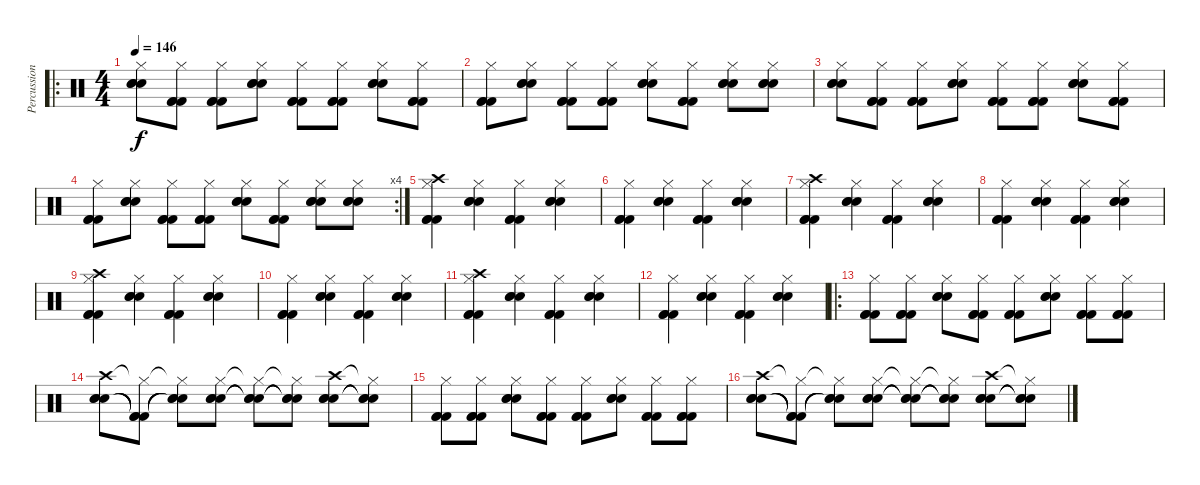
\track ("Percussion" "Percussion") {instrument percussion}
\staff {score}
\articulation defaults
\ro
\ts (4 4)
\tempo 146
\clef neutral
\ks c
("Hi-Hat (closed)" "Snare (hit) 2" "Snare (hit) 2" "Snare (hit) 2").8{dy f} ("Hi-Hat (closed)" "Kick (hit) 2" "Kick (hit) 2" "Kick (hit) 2").8 ("Hi-Hat (closed)" "Kick (hit) 2" "Kick (hit) 2" "Kick (hit) 2").8 ("Hi-Hat (closed)" "Snare (hit) 2" "Snare (hit) 2" "Snare (hit) 2").8 ("Hi-Hat (closed)" "Kick (hit) 2" "Kick (hit) 2" "Kick (hit) 2").8 ("Hi-Hat (closed)" "Kick (hit) 2" "Kick (hit) 2" "Kick (hit) 2").8 ("Hi-Hat (closed)" "Snare (hit) 2" "Snare (hit) 2" "Snare (hit) 2").8 ("Hi-Hat (closed)" "Kick (hit) 2" "Kick (hit) 2" "Kick (hit) 2").8 |
("Hi-Hat (closed)" "Kick (hit) 2" "Kick (hit) 2" "Kick (hit) 2").8 ("Hi-Hat (closed)" "Snare (hit) 2" "Snare (hit) 2" "Snare (hit) 2").8 ("Hi-Hat (closed)" "Kick (hit) 2" "Kick (hit) 2" "Kick (hit) 2").8 ("Hi-Hat (closed)" "Kick (hit) 2" "Kick (hit) 2" "Kick (hit) 2").8 ("Hi-Hat (closed)" "Snare (hit) 2" "Snare (hit) 2" "Snare (hit) 2").8 ("Hi-Hat (closed)" "Kick (hit) 2" "Kick (hit) 2" "Kick (hit) 2").8 ("Hi-Hat (closed)" "Snare (hit) 2" "Snare (hit) 2" "Snare (hit) 2").8 ("Hi-Hat (closed)" "Snare (hit) 2" "Snare (hit) 2" "Snare (hit) 2").8 |
("Hi-Hat (closed)" "Snare (hit) 2" "Snare (hit) 2" "Snare (hit) 2").8 ("Hi-Hat (closed)" "Kick (hit) 2" "Kick (hit) 2" "Kick (hit) 2").8 ("Hi-Hat (closed)" "Kick (hit) 2" "Kick (hit) 2" "Kick (hit) 2").8 ("Hi-Hat (closed)" "Snare (hit) 2" "Snare (hit) 2" "Snare (hit) 2").8 ("Hi-Hat (closed)" "Kick (hit) 2" "Kick (hit) 2" "Kick (hit) 2").8 ("Hi-Hat (closed)" "Kick (hit) 2" "Kick (hit) 2" "Kick (hit) 2").8 ("Hi-Hat (closed)" "Snare (hit) 2" "Snare (hit) 2" "Snare (hit) 2").8 ("Hi-Hat (closed)" "Kick (hit) 2" "Kick (hit) 2" "Kick (hit) 2").8 |
\rc 4
("Hi-Hat (closed)" "Kick (hit) 2" "Kick (hit) 2" "Kick (hit) 2").8 ("Hi-Hat (closed)" "Snare (hit) 2" "Snare (hit) 2" "Snare (hit) 2").8 ("Hi-Hat (closed)" "Kick (hit) 2" "Kick (hit) 2" "Kick (hit) 2").8 ("Hi-Hat (closed)" "Kick (hit) 2" "Kick (hit) 2" "Kick (hit) 2").8 ("Hi-Hat (closed)" "Snare (hit) 2" "Snare (hit) 2" "Snare (hit) 2").8 ("Hi-Hat (closed)" "Kick (hit) 2" "Kick (hit) 2" "Kick (hit) 2").8 ("Hi-Hat (closed)" "Snare (hit) 2" "Snare (hit) 2" "Snare (hit) 2").8 ("Hi-Hat (closed)" "Snare (hit) 2" "Snare (hit) 2" "Snare (hit) 2").8 |
("Crash high (hit)" "Hi-Hat (closed)" "Kick (hit) 2" "Kick (hit) 2" "Kick (hit) 2").4 ("Hi-Hat (closed)" "Snare (hit) 2" "Snare (hit) 2" "Snare (hit) 2").4 ("Hi-Hat (closed)" "Kick (hit) 2" "Kick (hit) 2" "Kick (hit) 2").4 ("Hi-Hat (closed)" "Snare (hit) 2" "Snare (hit) 2" "Snare (hit) 2").4 |
("Hi-Hat (closed)" "Kick (hit) 2" "Kick (hit) 2" "Kick (hit) 2").4 ("Hi-Hat (closed)" "Snare (hit) 2" "Snare (hit) 2" "Snare (hit) 2").4 ("Hi-Hat (closed)" "Kick (hit) 2" "Kick (hit) 2" "Kick (hit) 2").4 ("Hi-Hat (closed)" "Snare (hit) 2" "Snare (hit) 2" "Snare (hit) 2").4 |
("Crash high (hit)" "Hi-Hat (closed)" "Kick (hit) 2" "Kick (hit) 2" "Kick (hit) 2").4 ("Hi-Hat (closed)" "Snare (hit) 2" "Snare (hit) 2" "Snare (hit) 2").4 ("Hi-Hat (closed)" "Kick (hit) 2" "Kick (hit) 2" "Kick (hit) 2").4 ("Hi-Hat (closed)" "Snare (hit) 2" "Snare (hit) 2" "Snare (hit) 2").4 |
("Hi-Hat (closed)" "Kick (hit) 2" "Kick (hit) 2" "Kick (hit) 2").4 ("Hi-Hat (closed)" "Snare (hit) 2" "Snare (hit) 2" "Snare (hit) 2").4 ("Hi-Hat (closed)" "Kick (hit) 2" "Kick (hit) 2" "Kick (hit) 2").4 ("Hi-Hat (closed)" "Snare (hit) 2" "Snare (hit) 2" "Snare (hit) 2").4 |
("Crash high (hit)" "Hi-Hat (closed)" "Kick (hit) 2" "Kick (hit) 2" "Kick (hit) 2").4 ("Hi-Hat (closed)" "Snare (hit) 2" "Snare (hit) 2" "Snare (hit) 2").4 ("Hi-Hat (closed)" "Kick (hit) 2" "Kick (hit) 2" "Kick (hit) 2").4 ("Hi-Hat (closed)" "Snare (hit) 2" "Snare (hit) 2" "Snare (hit) 2").4 |
("Hi-Hat (closed)" "Kick (hit) 2" "Kick (hit) 2" "Kick (hit) 2").4 ("Hi-Hat (closed)" "Snare (hit) 2" "Snare (hit) 2" "Snare (hit) 2").4 ("Hi-Hat (closed)" "Kick (hit) 2" "Kick (hit) 2" "Kick (hit) 2").4 ("Hi-Hat (closed)" "Snare (hit) 2" "Snare (hit) 2" "Snare (hit) 2").4 |
("Crash high (hit)" "Hi-Hat (closed)" "Kick (hit) 2" "Kick (hit) 2" "Kick (hit) 2").4 ("Hi-Hat (closed)" "Snare (hit) 2" "Snare (hit) 2" "Snare (hit) 2").4 ("Hi-Hat (closed)" "Kick (hit) 2" "Kick (hit) 2" "Kick (hit) 2").4 ("Hi-Hat (closed)" "Snare (hit) 2" "Snare (hit) 2" "Snare (hit) 2").4 |
("Hi-Hat (closed)" "Kick (hit) 2" "Kick (hit) 2" "Kick (hit) 2").4 ("Hi-Hat (closed)" "Snare (hit) 2" "Snare (hit) 2" "Snare (hit) 2").4 ("Hi-Hat (closed)" "Kick (hit) 2" "Kick (hit) 2" "Kick (hit) 2").4 ("Hi-Hat (closed)" "Snare (hit) 2" "Snare (hit) 2" "Snare (hit) 2").4 |
\ro
("Hi-Hat (closed)" "Kick (hit) 2" "Kick (hit) 2" "Kick (hit) 2").8 ("Hi-Hat (closed)" "Kick (hit) 2" "Kick (hit) 2" "Kick (hit) 2").8 ("Hi-Hat (closed)" "Snare (hit) 2" "Snare (hit) 2" "Snare (hit) 2").8 ("Hi-Hat (closed)" "Kick (hit) 2" "Kick (hit) 2" "Kick (hit) 2").8 ("Hi-Hat (closed)" "Kick (hit) 2" "Kick (hit) 2" "Kick (hit) 2").8 ("Hi-Hat (closed)" "Snare (hit) 2" "Snare (hit) 2" "Snare (hit) 2").8 ("Hi-Hat (closed)" "Kick (hit) 2" "Kick (hit) 2" "Kick (hit) 2").8 ("Hi-Hat (closed)" "Kick (hit) 2" "Kick (hit) 2" "Kick (hit) 2").8 |
("Crash high (hit)" "Snare (hit) 2" "Snare (hit) 2" "Snare (hit) 2").8 ("Hi-Hat (closed)"{t} "Kick (hit) 2"{t} "Kick (hit) 2"{t} "Kick (hit) 2"{t}).8 ("Hi-Hat (closed)"{t} "Snare (hit) 2"{t} "Snare (hit) 2"{t} "Snare (hit) 2"{t}).8 ("Hi-Hat (closed)" "Snare (hit) 2" "Snare (hit) 2" "Snare (hit) 2").8 ("Hi-Hat (closed)"{t} "Snare (hit) 2"{t} "Snare (hit) 2"{t} "Snare (hit) 2"{t}).8 ("Hi-Hat (closed)"{t} "Snare (hit) 2"{t} "Snare (hit) 2"{t} "Snare (hit) 2"{t}).8 ("Crash high (hit)" "Snare (hit) 2" "Snare (hit) 2" "Snare (hit) 2").8 ("Hi-Hat (closed)"{t} "Snare (hit) 2"{t} "Snare (hit) 2"{t} "Snare (hit) 2"{t}).8 |
("Hi-Hat (closed)" "Kick (hit) 2" "Kick (hit) 2" "Kick (hit) 2").8 ("Hi-Hat (closed)" "Kick (hit) 2" "Kick (hit) 2" "Kick (hit) 2").8 ("Hi-Hat (closed)" "Snare (hit) 2" "Snare (hit) 2" "Snare (hit) 2").8 ("Hi-Hat (closed)" "Kick (hit) 2" "Kick (hit) 2" "Kick (hit) 2").8 ("Hi-Hat (closed)" "Kick (hit) 2" "Kick (hit) 2" "Kick (hit) 2").8 ("Hi-Hat (closed)" "Snare (hit) 2" "Snare (hit) 2" "Snare (hit) 2").8 ("Hi-Hat (closed)" "Kick (hit) 2" "Kick (hit) 2" "Kick (hit) 2").8 ("Hi-Hat (closed)" "Kick (hit) 2" "Kick (hit) 2" "Kick (hit) 2").8 |
("Crash high (hit)" "Snare (hit) 2" "Snare (hit) 2" "Snare (hit) 2").8 ("Hi-Hat (closed)"{t} "Kick (hit) 2"{t} "Kick (hit) 2"{t} "Kick (hit) 2"{t}).8 ("Hi-Hat (closed)"{t} "Snare (hit) 2"{t} "Snare (hit) 2"{t} "Snare (hit) 2"{t}).8 ("Hi-Hat (closed)" "Snare (hit) 2" "Snare (hit) 2" "Snare (hit) 2").8 ("Hi-Hat (closed)"{t} "Snare (hit) 2"{t} "Snare (hit) 2"{t} "Snare (hit) 2"{t}).8 ("Hi-Hat (closed)"{t} "Snare (hit) 2"{t} "Snare (hit) 2"{t} "Snare (hit) 2"{t}).8 ("Crash high (hit)" "Snare (hit) 2" "Snare (hit) 2" "Snare (hit) 2").8 ("Hi-Hat (closed)"{t} "Snare (hit) 2"{t} "Snare (hit) 2"{t} "Snare (hit) 2"{t}).8
